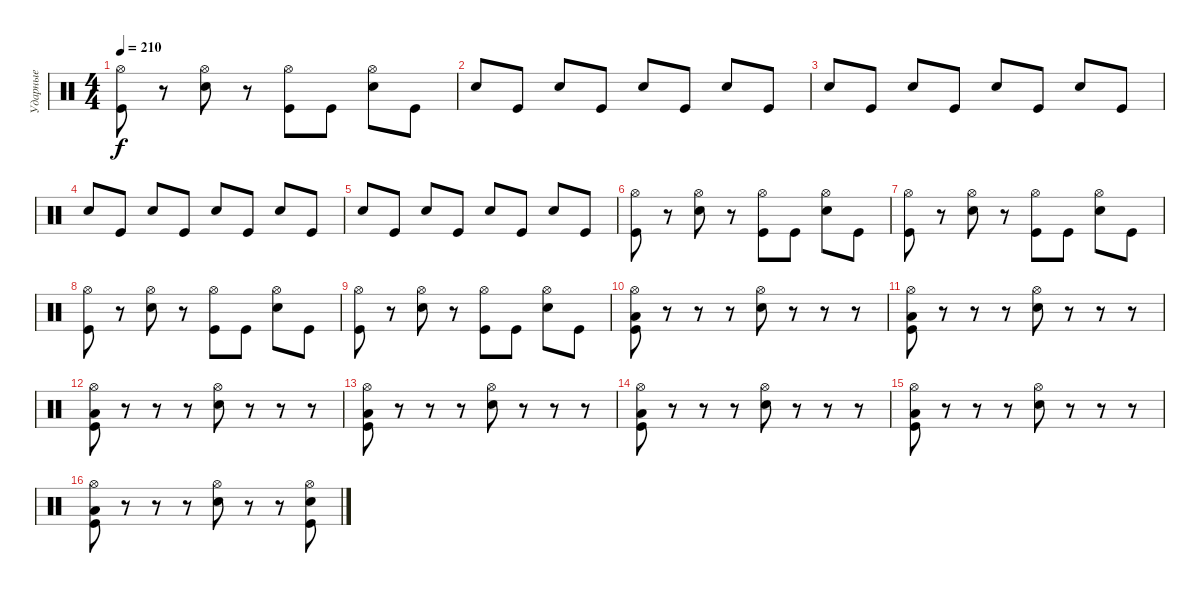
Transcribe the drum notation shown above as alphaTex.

\track ("Ударные" "Ударные") {instrument percussion}
\staff {score}
\articulation defaults
\ts (4 4)
\tempo 210
\clef neutral
\ks c
("Hi-Hat (open)" "Kick (hit)").8{dy f} r.8 ("Hi-Hat (open)" "Electric Snare (hit)").8 r.8 ("Hi-Hat (open)" "Kick (hit)").8 "Kick (hit)".8 ("Hi-Hat (open)" "Electric Snare (hit)").8 "Kick (hit)".8 |
"Electric Snare (hit)".8 "Kick (hit)".8 "Electric Snare (hit)".8 "Kick (hit)".8 "Electric Snare (hit)".8 "Kick (hit)".8 "Electric Snare (hit)".8 "Kick (hit)".8 |
"Electric Snare (hit)".8 "Kick (hit)".8 "Electric Snare (hit)".8 "Kick (hit)".8 "Electric Snare (hit)".8 "Kick (hit)".8 "Electric Snare (hit)".8 "Kick (hit)".8 |
"Electric Snare (hit)".8 "Kick (hit)".8 "Electric Snare (hit)".8 "Kick (hit)".8 "Electric Snare (hit)".8 "Kick (hit)".8 "Electric Snare (hit)".8 "Kick (hit)".8 |
"Electric Snare (hit)".8 "Kick (hit)".8 "Electric Snare (hit)".8 "Kick (hit)".8 "Electric Snare (hit)".8 "Kick (hit)".8 "Electric Snare (hit)".8 "Kick (hit)".8 |
("Hi-Hat (open)" "Kick (hit)").8 r.8 ("Hi-Hat (open)" "Electric Snare (hit)").8 r.8 ("Hi-Hat (open)" "Kick (hit)").8 "Kick (hit)".8 ("Hi-Hat (open)" "Electric Snare (hit)").8 "Kick (hit)".8 |
("Hi-Hat (open)" "Kick (hit)").8 r.8 ("Hi-Hat (open)" "Electric Snare (hit)").8 r.8 ("Hi-Hat (open)" "Kick (hit)").8 "Kick (hit)".8 ("Hi-Hat (open)" "Electric Snare (hit)").8 "Kick (hit)".8 |
("Hi-Hat (open)" "Kick (hit)").8 r.8 ("Hi-Hat (open)" "Electric Snare (hit)").8 r.8 ("Hi-Hat (open)" "Kick (hit)").8 "Kick (hit)".8 ("Hi-Hat (open)" "Electric Snare (hit)").8 "Kick (hit)".8 |
("Hi-Hat (open)" "Kick (hit)").8 r.8 ("Hi-Hat (open)" "Electric Snare (hit)").8 r.8 ("Hi-Hat (open)" "Kick (hit)").8 "Kick (hit)".8 ("Hi-Hat (open)" "Electric Snare (hit)").8 "Kick (hit)".8 |
("Hi-Hat (open)" "Low Tom (hit)" "Kick (hit)").8 r.8 r.8 r.8 ("Hi-Hat (open)" "Electric Snare (hit)").8 r.8 r.8 r.8 |
("Hi-Hat (open)" "Low Tom (hit)" "Kick (hit)").8 r.8 r.8 r.8 ("Hi-Hat (open)" "Electric Snare (hit)").8 r.8 r.8 r.8 |
("Hi-Hat (open)" "Low Tom (hit)" "Kick (hit)").8 r.8 r.8 r.8 ("Hi-Hat (open)" "Electric Snare (hit)").8 r.8 r.8 r.8 |
("Hi-Hat (open)" "Low Tom (hit)" "Kick (hit)").8 r.8 r.8 r.8 ("Hi-Hat (open)" "Electric Snare (hit)").8 r.8 r.8 r.8 |
("Hi-Hat (open)" "Low Tom (hit)" "Kick (hit)").8 r.8 r.8 r.8 ("Hi-Hat (open)" "Electric Snare (hit)").8 r.8 r.8 r.8 |
("Hi-Hat (open)" "Low Tom (hit)" "Kick (hit)").8 r.8 r.8 r.8 ("Hi-Hat (open)" "Electric Snare (hit)").8 r.8 r.8 r.8 |
("Hi-Hat (open)" "Low Tom (hit)" "Kick (hit)").8 r.8 r.8 r.8 ("Hi-Hat (open)" "Electric Snare (hit)").8 r.8 r.8 ("Hi-Hat (open)" "Kick (hit)" "Electric Snare (hit)").8
